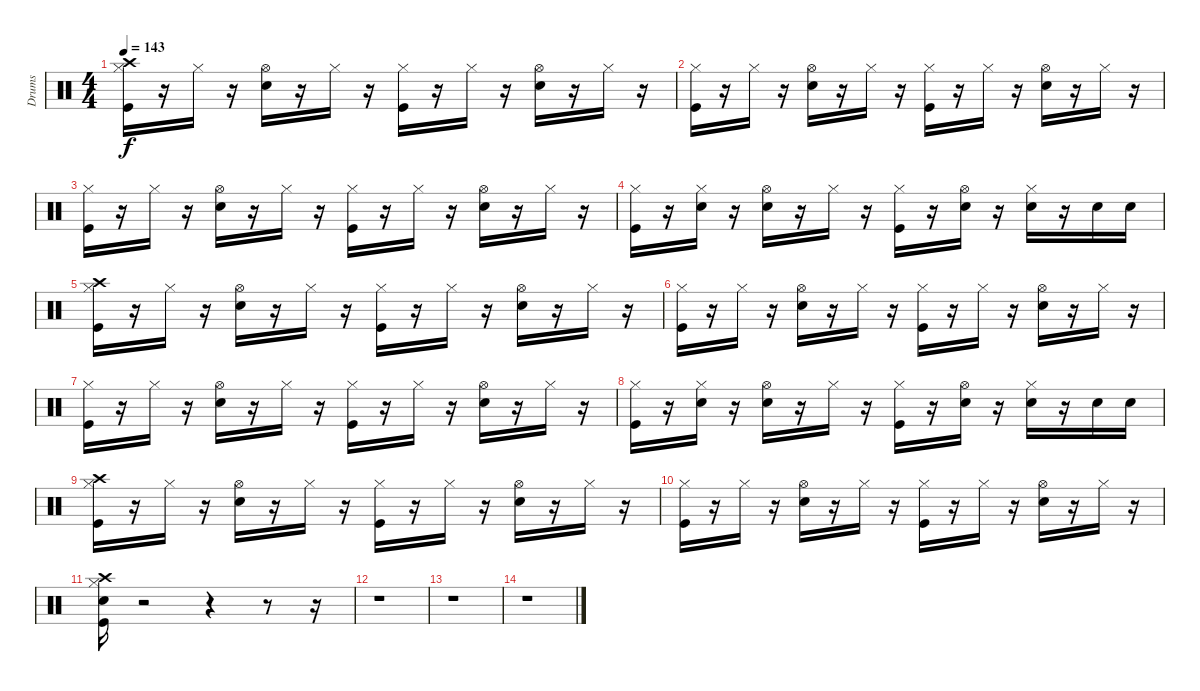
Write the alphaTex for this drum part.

\track ("Drums" "Drums") {instrument percussion}
\staff {score}
\articulation defaults
\ts (4 4)
\tempo 143
\clef neutral
\ks c
("Hi-Hat (closed)" "Kick (hit)" "Crash high (hit)").16{dy f} r.16 "Hi-Hat (closed)".16 r.16 ("Hi-Hat (open)" "Snare (hit) 2").16 r.16 "Hi-Hat (closed)".16 r.16 ("Hi-Hat (closed)" "Kick (hit)").16 r.16 "Hi-Hat (closed)".16 r.16 ("Hi-Hat (open)" "Snare (hit) 2").16 r.16 "Hi-Hat (closed)".16 r.16 |
("Hi-Hat (closed)" "Kick (hit)").16 r.16 "Hi-Hat (closed)".16 r.16 ("Hi-Hat (open)" "Snare (hit) 2").16 r.16 "Hi-Hat (closed)".16 r.16 ("Hi-Hat (closed)" "Kick (hit)").16 r.16 "Hi-Hat (closed)".16 r.16 ("Hi-Hat (open)" "Snare (hit) 2").16 r.16 "Hi-Hat (closed)".16 r.16 |
("Hi-Hat (closed)" "Kick (hit)").16 r.16 "Hi-Hat (closed)".16 r.16 ("Hi-Hat (open)" "Snare (hit) 2").16 r.16 "Hi-Hat (closed)".16 r.16 ("Hi-Hat (closed)" "Kick (hit)").16 r.16 "Hi-Hat (closed)".16 r.16 ("Hi-Hat (open)" "Snare (hit) 2").16 r.16 "Hi-Hat (closed)".16 r.16 |
("Hi-Hat (closed)" "Kick (hit)").16 r.16 ("Hi-Hat (closed)" "Snare (hit) 2").16 r.16 ("Hi-Hat (open)" "Snare (hit) 2").16 r.16 "Hi-Hat (closed)".16 r.16 ("Hi-Hat (closed)" "Kick (hit)").16 r.16 ("Hi-Hat (open)" "Snare (hit) 2").16 r.16 ("Hi-Hat (closed)" "Snare (hit) 2").16 r.16 "Snare (hit) 2".16 "Snare (hit) 2".16 |
("Hi-Hat (closed)" "Kick (hit)" "Crash high (hit)").16 r.16 "Hi-Hat (closed)".16 r.16 ("Hi-Hat (open)" "Snare (hit) 2").16 r.16 "Hi-Hat (closed)".16 r.16 ("Hi-Hat (closed)" "Kick (hit)").16 r.16 "Hi-Hat (closed)".16 r.16 ("Hi-Hat (open)" "Snare (hit) 2").16 r.16 "Hi-Hat (closed)".16 r.16 |
("Hi-Hat (closed)" "Kick (hit)").16 r.16 "Hi-Hat (closed)".16 r.16 ("Hi-Hat (open)" "Snare (hit) 2").16 r.16 "Hi-Hat (closed)".16 r.16 ("Hi-Hat (closed)" "Kick (hit)").16 r.16 "Hi-Hat (closed)".16 r.16 ("Hi-Hat (open)" "Snare (hit) 2").16 r.16 "Hi-Hat (closed)".16 r.16 |
("Hi-Hat (closed)" "Kick (hit)").16 r.16 "Hi-Hat (closed)".16 r.16 ("Hi-Hat (open)" "Snare (hit) 2").16 r.16 "Hi-Hat (closed)".16 r.16 ("Hi-Hat (closed)" "Kick (hit)").16 r.16 "Hi-Hat (closed)".16 r.16 ("Hi-Hat (open)" "Snare (hit) 2").16 r.16 "Hi-Hat (closed)".16 r.16 |
("Hi-Hat (closed)" "Kick (hit)").16 r.16 ("Hi-Hat (closed)" "Snare (hit) 2").16 r.16 ("Hi-Hat (open)" "Snare (hit) 2").16 r.16 "Hi-Hat (closed)".16 r.16 ("Hi-Hat (closed)" "Kick (hit)").16 r.16 ("Hi-Hat (open)" "Snare (hit) 2").16 r.16 ("Hi-Hat (closed)" "Snare (hit) 2").16 r.16 "Snare (hit) 2".16 "Snare (hit) 2".16 |
("Hi-Hat (closed)" "Kick (hit)" "Crash high (hit)").16 r.16 "Hi-Hat (closed)".16 r.16 ("Hi-Hat (open)" "Snare (hit) 2").16 r.16 "Hi-Hat (closed)".16 r.16 ("Hi-Hat (closed)" "Kick (hit)").16 r.16 "Hi-Hat (closed)".16 r.16 ("Hi-Hat (open)" "Snare (hit) 2").16 r.16 "Hi-Hat (closed)".16 r.16 |
("Hi-Hat (closed)" "Kick (hit)").16 r.16 "Hi-Hat (closed)".16 r.16 ("Hi-Hat (open)" "Snare (hit) 2").16 r.16 "Hi-Hat (closed)".16 r.16 ("Hi-Hat (closed)" "Kick (hit)").16 r.16 "Hi-Hat (closed)".16 r.16 ("Hi-Hat (open)" "Snare (hit) 2").16 r.16 "Hi-Hat (closed)".16 r.16 |
("Hi-Hat (closed)" "Kick (hit)" "Snare (hit) 2" "Crash high (hit)").16 r.2 r.4 r.8 r.16 |
r.1 |
r.1 |
r.1
